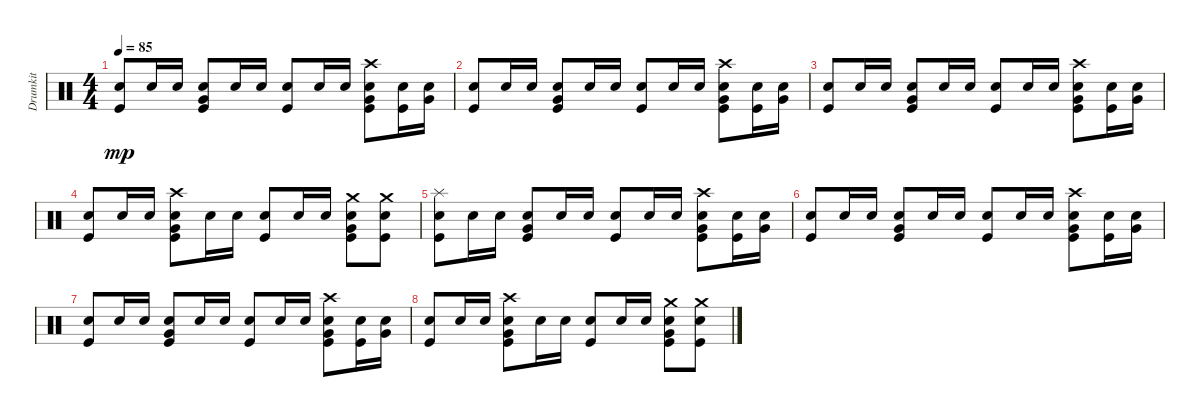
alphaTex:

\track ("Drumkit" "Drumkit") {instrument percussion}
\staff {score}
\articulation defaults
\ts (4 4)
\tempo 85
\clef neutral
\ks c
("Snare (hit) 2" "Kick (hit)").8{dy mp} "Snare (hit) 2".16 "Snare (hit) 2".16 ("Very Low Tom (hit)" "Snare (hit) 2" "Kick (hit)").8 "Snare (hit) 2".16 "Snare (hit) 2".16 ("Snare (hit) 2" "Kick (hit)").8 "Snare (hit) 2".16 "Snare (hit) 2".16 ("Snare (hit) 2" "Very Low Tom (hit)" "Crash high (hit)" "Kick (hit)").8 ("Snare (hit) 2" "Kick (hit)").16 ("Snare (hit) 2" "Very Low Tom (hit)").16 |
("Snare (hit) 2" "Kick (hit)").8 "Snare (hit) 2".16 "Snare (hit) 2".16 ("Very Low Tom (hit)" "Snare (hit) 2" "Kick (hit)").8 "Snare (hit) 2".16 "Snare (hit) 2".16 ("Snare (hit) 2" "Kick (hit)").8 "Snare (hit) 2".16 "Snare (hit) 2".16 ("Snare (hit) 2" "Very Low Tom (hit)" "Crash high (hit)" "Kick (hit)").8 ("Snare (hit) 2" "Kick (hit)").16 ("Snare (hit) 2" "Very Low Tom (hit)").16 |
("Snare (hit) 2" "Kick (hit)").8 "Snare (hit) 2".16 "Snare (hit) 2".16 ("Very Low Tom (hit)" "Snare (hit) 2" "Kick (hit)").8 "Snare (hit) 2".16 "Snare (hit) 2".16 ("Snare (hit) 2" "Kick (hit)").8 "Snare (hit) 2".16 "Snare (hit) 2".16 ("Snare (hit) 2" "Very Low Tom (hit)" "Crash high (hit)" "Kick (hit)").8 ("Snare (hit) 2" "Kick (hit)").16 ("Snare (hit) 2" "Very Low Tom (hit)").16 |
("Snare (hit) 2" "Kick (hit)").8 "Snare (hit) 2".16 "Snare (hit) 2".16 ("Very Low Tom (hit)" "Snare (hit) 2" "Kick (hit)" "Crash high (hit)").8 "Snare (hit) 2".16 "Snare (hit) 2".16 ("Snare (hit) 2" "Kick (hit)").8 "Snare (hit) 2".16 "Snare (hit) 2".16 ("Snare (hit) 2" "Very Low Tom (hit)" "Kick (hit)" "Crash medium (hit)").8 ("Snare (hit) 2" "Kick (hit)" "Crash medium (hit)").8 |
("Snare (hit) 2" "Kick (hit)" "Splash (hit)").8 "Snare (hit) 2".16 "Snare (hit) 2".16 ("Very Low Tom (hit)" "Snare (hit) 2" "Kick (hit)").8 "Snare (hit) 2".16 "Snare (hit) 2".16 ("Snare (hit) 2" "Kick (hit)").8 "Snare (hit) 2".16 "Snare (hit) 2".16 ("Snare (hit) 2" "Very Low Tom (hit)" "Crash high (hit)" "Kick (hit)").8 ("Snare (hit) 2" "Kick (hit)").16 ("Snare (hit) 2" "Very Low Tom (hit)").16 |
("Snare (hit) 2" "Kick (hit)").8 "Snare (hit) 2".16 "Snare (hit) 2".16 ("Very Low Tom (hit)" "Snare (hit) 2" "Kick (hit)").8 "Snare (hit) 2".16 "Snare (hit) 2".16 ("Snare (hit) 2" "Kick (hit)").8 "Snare (hit) 2".16 "Snare (hit) 2".16 ("Snare (hit) 2" "Very Low Tom (hit)" "Crash high (hit)" "Kick (hit)").8 ("Snare (hit) 2" "Kick (hit)").16 ("Snare (hit) 2" "Very Low Tom (hit)").16 |
("Snare (hit) 2" "Kick (hit)").8 "Snare (hit) 2".16 "Snare (hit) 2".16 ("Very Low Tom (hit)" "Snare (hit) 2" "Kick (hit)").8 "Snare (hit) 2".16 "Snare (hit) 2".16 ("Snare (hit) 2" "Kick (hit)").8 "Snare (hit) 2".16 "Snare (hit) 2".16 ("Snare (hit) 2" "Very Low Tom (hit)" "Crash high (hit)" "Kick (hit)").8 ("Snare (hit) 2" "Kick (hit)").16 ("Snare (hit) 2" "Very Low Tom (hit)").16 |
("Snare (hit) 2" "Kick (hit)").8 "Snare (hit) 2".16 "Snare (hit) 2".16 ("Very Low Tom (hit)" "Snare (hit) 2" "Kick (hit)" "Crash high (hit)").8 "Snare (hit) 2".16 "Snare (hit) 2".16 ("Snare (hit) 2" "Kick (hit)").8 "Snare (hit) 2".16 "Snare (hit) 2".16 ("Snare (hit) 2" "Very Low Tom (hit)" "Kick (hit)" "Crash medium (hit)").8 ("Snare (hit) 2" "Kick (hit)" "Crash medium (hit)").8
